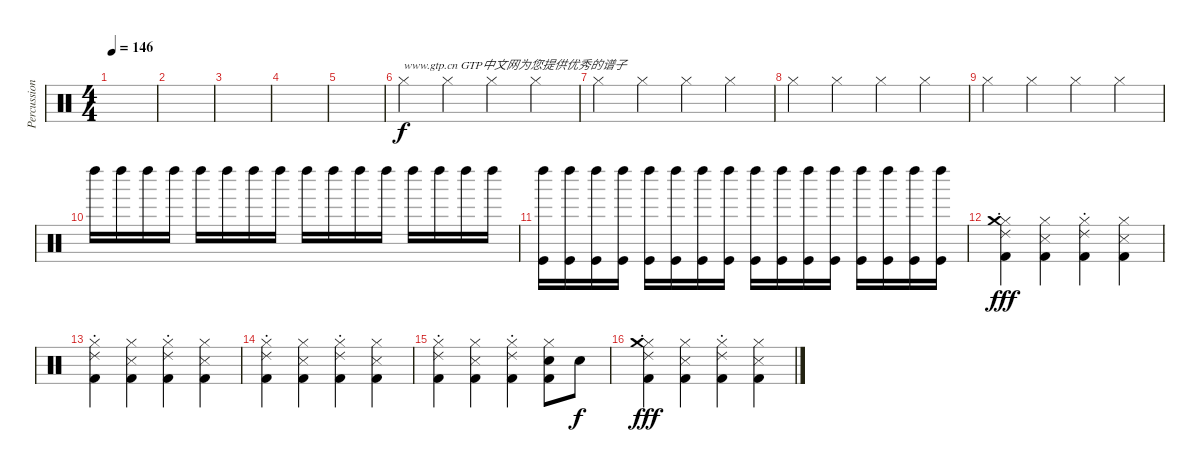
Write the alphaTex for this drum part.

\track ("Percussion" "Percussion") {instrument percussion}
\staff {score}
\articulation defaults
\ts (4 4)
\tempo 146
\clef neutral
\ks c
|
|
|
|
|
"Hi-Hat (closed)".4{txt "www.gtp.cn GTP中文网为您提供优秀的谱子"} "Hi-Hat (closed)".4 "Hi-Hat (closed)".4 "Hi-Hat (closed)".4 |
"Hi-Hat (closed)".4 "Hi-Hat (closed)".4 "Hi-Hat (closed)".4 "Hi-Hat (closed)".4 |
"Hi-Hat (closed)".4 "Hi-Hat (closed)".4 "Hi-Hat (closed)".4 "Hi-Hat (closed)".4 |
"Hi-Hat (closed)".4 "Hi-Hat (closed)".4 "Hi-Hat (closed)".4 "Hi-Hat (closed)".4 |
"Left Maraca (hit)".16 "Left Maraca (hit)".16 "Left Maraca (hit)".16 "Left Maraca (hit)".16 "Left Maraca (hit)".16 "Left Maraca (hit)".16 "Left Maraca (hit)".16 "Left Maraca (hit)".16 "Left Maraca (hit)".16 "Left Maraca (hit)".16 "Left Maraca (hit)".16 "Left Maraca (hit)".16 "Left Maraca (hit)".16 "Left Maraca (hit)".16 "Left Maraca (hit)".16 "Left Maraca (hit)".16 |
("Left Maraca (hit)" "Kick (hit)").16 ("Left Maraca (hit)" "Kick (hit)").16 ("Left Maraca (hit)" "Kick (hit)").16 ("Left Maraca (hit)" "Kick (hit)").16 ("Left Maraca (hit)" "Kick (hit)").16 ("Left Maraca (hit)" "Kick (hit)").16 ("Left Maraca (hit)" "Kick (hit)").16 ("Left Maraca (hit)" "Kick (hit)").16 ("Left Maraca (hit)" "Kick (hit)").16 ("Left Maraca (hit)" "Kick (hit)").16 ("Left Maraca (hit)" "Kick (hit)").16 ("Left Maraca (hit)" "Kick (hit)").16 ("Left Maraca (hit)" "Kick (hit)").16 ("Left Maraca (hit)" "Kick (hit)").16 ("Left Maraca (hit)" "Kick (hit)").16 ("Left Maraca (hit)" "Kick (hit)").16 |
("Hi-Hat (closed)" "Ride (choke) 2" "Crash medium (hit)" "Kick (hit) 2").4{dy fff} ("Hi-Hat (closed)" "Metronome (hit)" "Kick (hit) 2").4 ("Hi-Hat (closed)" "Ride (choke) 2" "Kick (hit) 2").4 ("Hi-Hat (closed)" "Metronome (hit)" "Kick (hit) 2").4 |
("Hi-Hat (closed)" "Ride (choke) 2" "Kick (hit) 2").4 ("Hi-Hat (closed)" "Metronome (hit)" "Kick (hit) 2").4 ("Hi-Hat (closed)" "Ride (choke) 2" "Kick (hit) 2").4 ("Hi-Hat (closed)" "Metronome (hit)" "Kick (hit) 2").4 |
("Hi-Hat (closed)" "Ride (choke) 2" "Kick (hit) 2").4 ("Hi-Hat (closed)" "Metronome (hit)" "Kick (hit) 2").4 ("Hi-Hat (closed)" "Ride (choke) 2" "Kick (hit) 2").4 ("Hi-Hat (closed)" "Metronome (hit)" "Kick (hit) 2").4 |
("Hi-Hat (closed)" "Ride (choke) 2" "Kick (hit) 2").4 ("Hi-Hat (closed)" "Metronome (hit)" "Kick (hit) 2").4 ("Hi-Hat (closed)" "Ride (choke) 2" "Kick (hit) 2").4 ("Hi-Hat (closed)" "Hand Clap (hit)" "Kick (hit) 2").8 "Hand Clap (hit)".8{dy f} |
("Hi-Hat (closed)" "Ride (choke) 2" "Crash medium (hit)" "Kick (hit) 2").4{dy fff} ("Hi-Hat (closed)" "Metronome (hit)" "Kick (hit) 2").4 ("Hi-Hat (closed)" "Ride (choke) 2" "Kick (hit) 2").4 ("Hi-Hat (closed)" "Metronome (hit)" "Kick (hit) 2").4
